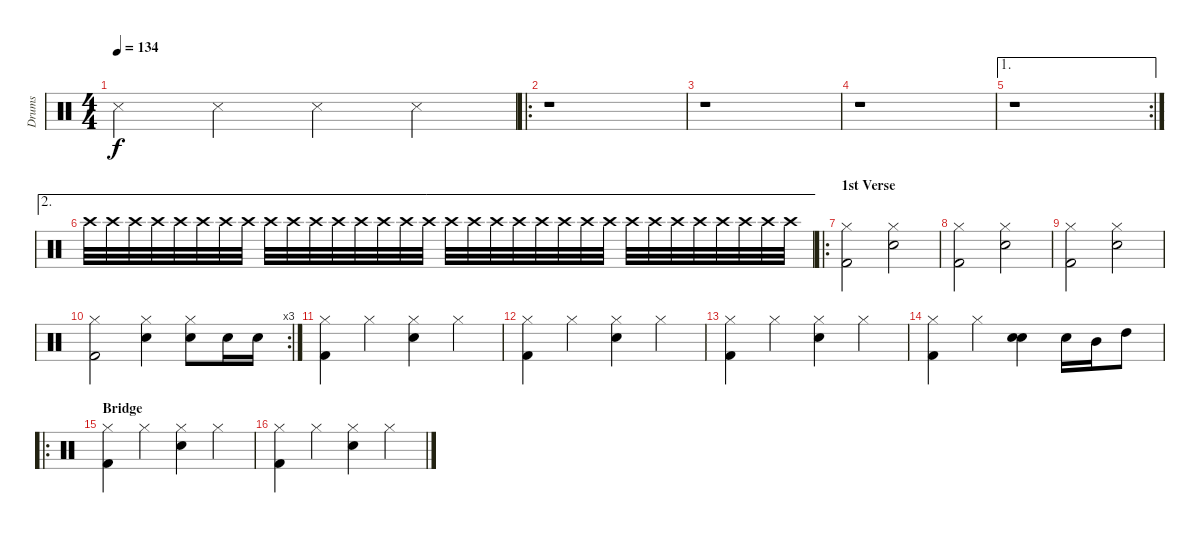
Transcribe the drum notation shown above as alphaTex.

\track ("Drums" "Drums") {instrument percussion}
\staff {score}
\articulation defaults
\ts (4 4)
\tempo 134
\clef neutral
\ks c "Metronome (hit)".4{dy f} "Metronome (hit)".4 "Metronome (hit)".4 "Metronome (hit)".4
|
\ro
r.1 |
r.1 |
r.1 |
\ae 1
\rc 2
r.1{volume 4} |
\ae 2 "Crash high (hit)".32{volume 16} "Crash high (hit)".32 "Crash high (hit)".32 "Crash high (hit)".32 "Crash high (hit)".32 "Crash high (hit)".32 "Crash high (hit)".32 "Crash high (hit)".32 "Crash high (hit)".32 "Crash high (hit)".32 "Crash high (hit)".32 "Crash high (hit)".32 "Crash high (hit)".32 "Crash high (hit)".32 "Crash high (hit)".32 "Crash high (hit)".32 "Crash high (hit)".32 "Crash high (hit)".32 "Crash high (hit)".32 "Crash high (hit)".32 "Crash high (hit)".32 "Crash high (hit)".32 "Crash high (hit)".32 "Crash high (hit)".32 "Crash high (hit)".32 "Crash high (hit)".32 "Crash high (hit)".32 "Crash high (hit)".32 "Crash high (hit)".32 "Crash high (hit)".32 "Crash high (hit)".32 "Crash high (hit)".32
|
\ro
\section ("" "1st Verse")
("Kick (hit) 2" "Hi-Hat (closed)").2{volume 16} ("Electric Snare (hit)" "Hi-Hat (closed)").2 |
("Kick (hit) 2" "Hi-Hat (closed)").2 ("Electric Snare (hit)" "Hi-Hat (closed)").2 |
("Kick (hit) 2" "Hi-Hat (closed)").2 ("Electric Snare (hit)" "Hi-Hat (closed)").2 |
\rc 3
("Kick (hit) 2" "Hi-Hat (closed)").2 ("Electric Snare (hit)" "Hi-Hat (closed)").4 ("Electric Snare (hit)" "Hi-Hat (closed)").8 "Electric Snare (hit)".16 "Electric Snare (hit)".16 |
("Kick (hit) 2" "Hi-Hat (closed)").4 "Hi-Hat (closed)".4 ("Electric Snare (hit)" "Hi-Hat (closed)").4 "Hi-Hat (closed)".4 |
("Kick (hit) 2" "Hi-Hat (closed)").4 "Hi-Hat (closed)".4 ("Electric Snare (hit)" "Hi-Hat (closed)").4 "Hi-Hat (closed)".4 |
("Kick (hit) 2" "Hi-Hat (closed)").4 "Hi-Hat (closed)".4 ("Electric Snare (hit)" "Hi-Hat (closed)").4 "Hi-Hat (closed)".4 |
("Kick (hit) 2" "Hi-Hat (closed)").4 "Hi-Hat (closed)".4 ("Electric Snare (hit)" "Electric Snare (hit)").4 "Electric Snare (hit)".16 "Mid Tom (hit)".16 "High Tom (hit)".8 |
\ro
\section ("" "Bridge")
("Kick (hit) 2" "Hi-Hat (closed)").4 "Hi-Hat (closed)".4 ("Electric Snare (hit)" "Hi-Hat (closed)").4 "Hi-Hat (closed)".4 |
("Kick (hit) 2" "Hi-Hat (closed)").4 "Hi-Hat (closed)".4 ("Electric Snare (hit)" "Hi-Hat (closed)").4 "Hi-Hat (closed)".4
